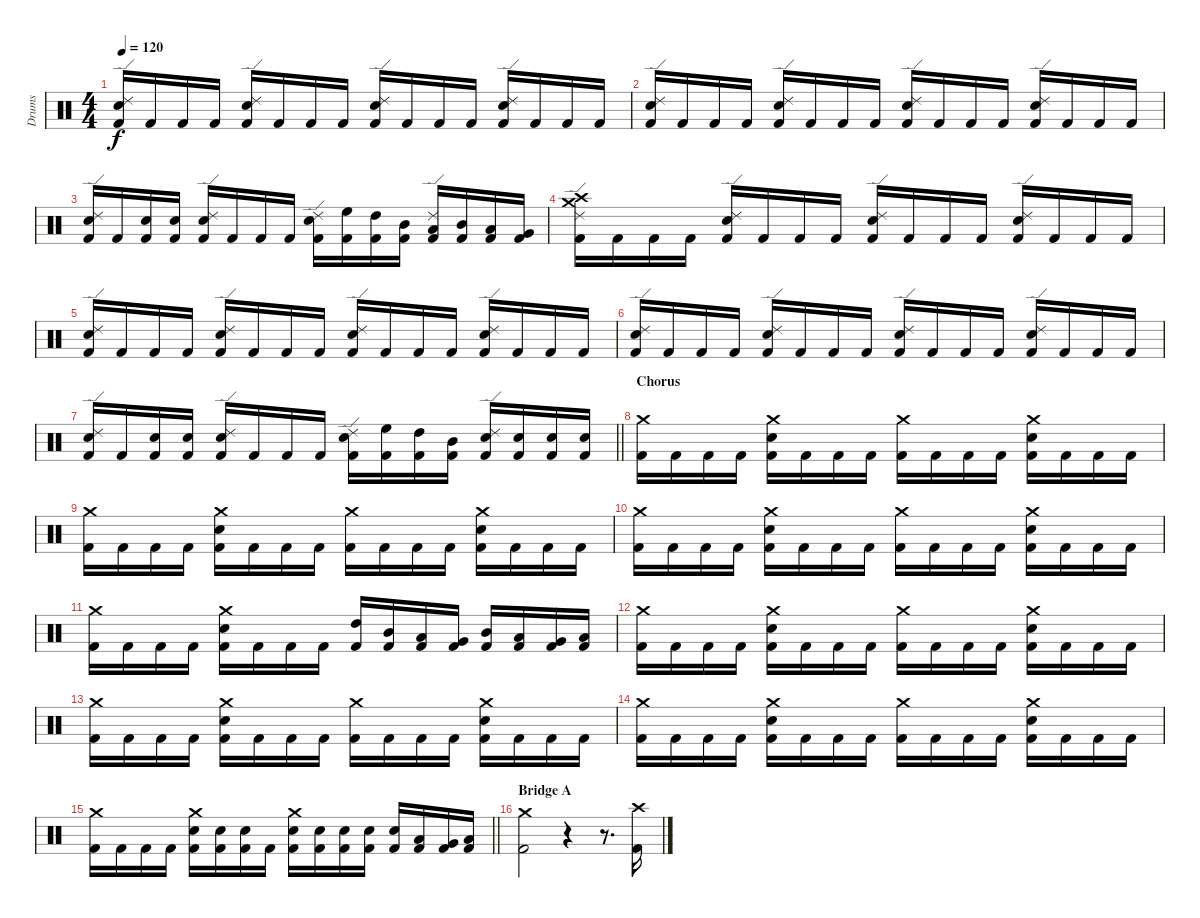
\track ("Drums" "Drums") {instrument percussion}
\staff {score}
\articulation defaults
\ts (4 4)
\tempo 120
\clef neutral
\ks c
("Kick (hit) 2" "Snare (hit) 2" "Ride (edge) 2").16{dy f} "Kick (hit) 2".16 "Kick (hit) 2".16 "Kick (hit) 2".16 ("Kick (hit) 2" "Snare (hit) 2" "Ride (edge) 2").16 "Kick (hit) 2".16 "Kick (hit) 2".16 "Kick (hit) 2".16 ("Kick (hit) 2" "Snare (hit) 2" "Ride (edge) 2").16 "Kick (hit) 2".16 "Kick (hit) 2".16 "Kick (hit) 2".16 ("Kick (hit) 2" "Snare (hit) 2" "Ride (edge) 2").16 "Kick (hit) 2".16 "Kick (hit) 2".16 "Kick (hit) 2".16 |
("Kick (hit) 2" "Snare (hit) 2" "Ride (edge) 2").16 "Kick (hit) 2".16 "Kick (hit) 2".16 "Kick (hit) 2".16 ("Kick (hit) 2" "Snare (hit) 2" "Ride (edge) 2").16 "Kick (hit) 2".16 "Kick (hit) 2".16 "Kick (hit) 2".16 ("Kick (hit) 2" "Snare (hit) 2" "Ride (edge) 2").16 "Kick (hit) 2".16 "Kick (hit) 2".16 "Kick (hit) 2".16 ("Kick (hit) 2" "Snare (hit) 2" "Ride (edge) 2").16 "Kick (hit) 2".16 "Kick (hit) 2".16 "Kick (hit) 2".16 |
("Kick (hit) 2" "Snare (hit) 2" "Ride (edge) 2").16 "Kick (hit) 2".16 ("Kick (hit) 2" "Snare (hit) 2").16 ("Kick (hit) 2" "Snare (hit) 2").16 ("Kick (hit) 2" "Snare (hit) 2" "Ride (edge) 2").16 "Kick (hit) 2".16 "Kick (hit) 2".16 "Kick (hit) 2".16 ("Kick (hit) 2" "Snare (hit) 2" "Ride (edge) 2").16 ("Kick (hit) 2" "High Floor Tom (hit)").16 ("Kick (hit) 2" "High Tom (hit)").16 ("Kick (hit) 2" "Mid Tom (hit)").16 ("Kick (hit) 2" "Ride (edge) 2" "Low Tom (hit)").16 ("Kick (hit) 2" "Mid Tom (hit)").16 ("Kick (hit) 2" "Low Tom (hit)").16 ("Kick (hit) 2" "Very Low Tom (hit)").16 |
("Kick (hit) 2" "Ride (edge) 2" "Crash high (hit)" "Crash medium (hit)").16 "Kick (hit) 2".16 "Kick (hit) 2".16 "Kick (hit) 2".16 ("Kick (hit) 2" "Snare (hit) 2" "Ride (edge) 2").16 "Kick (hit) 2".16 "Kick (hit) 2".16 "Kick (hit) 2".16 ("Kick (hit) 2" "Snare (hit) 2" "Ride (edge) 2").16 "Kick (hit) 2".16 "Kick (hit) 2".16 "Kick (hit) 2".16 ("Kick (hit) 2" "Snare (hit) 2" "Ride (edge) 2").16 "Kick (hit) 2".16 "Kick (hit) 2".16 "Kick (hit) 2".16 |
("Kick (hit) 2" "Snare (hit) 2" "Ride (edge) 2").16 "Kick (hit) 2".16 "Kick (hit) 2".16 "Kick (hit) 2".16 ("Kick (hit) 2" "Snare (hit) 2" "Ride (edge) 2").16 "Kick (hit) 2".16 "Kick (hit) 2".16 "Kick (hit) 2".16 ("Kick (hit) 2" "Snare (hit) 2" "Ride (edge) 2").16 "Kick (hit) 2".16 "Kick (hit) 2".16 "Kick (hit) 2".16 ("Kick (hit) 2" "Snare (hit) 2" "Ride (edge) 2").16 "Kick (hit) 2".16 "Kick (hit) 2".16 "Kick (hit) 2".16 |
("Kick (hit) 2" "Snare (hit) 2" "Ride (edge) 2").16 "Kick (hit) 2".16 "Kick (hit) 2".16 "Kick (hit) 2".16 ("Kick (hit) 2" "Snare (hit) 2" "Ride (edge) 2").16 "Kick (hit) 2".16 "Kick (hit) 2".16 "Kick (hit) 2".16 ("Kick (hit) 2" "Snare (hit) 2" "Ride (edge) 2").16 "Kick (hit) 2".16 "Kick (hit) 2".16 "Kick (hit) 2".16 ("Kick (hit) 2" "Snare (hit) 2" "Ride (edge) 2").16 "Kick (hit) 2".16 "Kick (hit) 2".16 "Kick (hit) 2".16 |
\barLineRight lightlight
("Kick (hit) 2" "Snare (hit) 2" "Ride (edge) 2").16 "Kick (hit) 2".16 ("Kick (hit) 2" "Snare (hit) 2").16 ("Kick (hit) 2" "Snare (hit) 2").16 ("Kick (hit) 2" "Snare (hit) 2" "Ride (edge) 2").16 "Kick (hit) 2".16 "Kick (hit) 2".16 "Kick (hit) 2".16 ("Kick (hit) 2" "Snare (hit) 2" "Ride (edge) 2").16 ("Kick (hit) 2" "High Floor Tom (hit)").16 ("Kick (hit) 2" "High Tom (hit)").16 ("Kick (hit) 2" "Mid Tom (hit)").16 ("Kick (hit) 2" "Snare (hit) 2" "Ride (edge) 2").16 ("Kick (hit) 2" "Snare (hit) 2").16 ("Kick (hit) 2" "Snare (hit) 2").16 ("Kick (hit) 2" "Snare (hit) 2").16 |
\section ("" "Chorus")
("Kick (hit) 2" "Crash medium (hit)").16 "Kick (hit) 2".16 "Kick (hit) 2".16 "Kick (hit) 2".16 ("Kick (hit) 2" "Snare (hit) 2" "Crash medium (hit)").16 "Kick (hit) 2".16 "Kick (hit) 2".16 "Kick (hit) 2".16 ("Kick (hit) 2" "Crash medium (hit)").16 "Kick (hit) 2".16 "Kick (hit) 2".16 "Kick (hit) 2".16 ("Kick (hit) 2" "Snare (hit) 2" "Crash medium (hit)").16 "Kick (hit) 2".16 "Kick (hit) 2".16 "Kick (hit) 2".16 |
("Kick (hit) 2" "Crash medium (hit)").16 "Kick (hit) 2".16 "Kick (hit) 2".16 "Kick (hit) 2".16 ("Kick (hit) 2" "Snare (hit) 2" "Crash medium (hit)").16 "Kick (hit) 2".16 "Kick (hit) 2".16 "Kick (hit) 2".16 ("Kick (hit) 2" "Crash medium (hit)").16 "Kick (hit) 2".16 "Kick (hit) 2".16 "Kick (hit) 2".16 ("Kick (hit) 2" "Snare (hit) 2" "Crash medium (hit)").16 "Kick (hit) 2".16 "Kick (hit) 2".16 "Kick (hit) 2".16 |
("Kick (hit) 2" "Crash medium (hit)").16 "Kick (hit) 2".16 "Kick (hit) 2".16 "Kick (hit) 2".16 ("Kick (hit) 2" "Snare (hit) 2" "Crash medium (hit)").16 "Kick (hit) 2".16 "Kick (hit) 2".16 "Kick (hit) 2".16 ("Kick (hit) 2" "Crash medium (hit)").16 "Kick (hit) 2".16 "Kick (hit) 2".16 "Kick (hit) 2".16 ("Kick (hit) 2" "Snare (hit) 2" "Crash medium (hit)").16 "Kick (hit) 2".16 "Kick (hit) 2".16 "Kick (hit) 2".16 |
("Kick (hit) 2" "Crash medium (hit)").16 "Kick (hit) 2".16 "Kick (hit) 2".16 "Kick (hit) 2".16 ("Kick (hit) 2" "Snare (hit) 2" "Crash medium (hit)").16 "Kick (hit) 2".16 "Kick (hit) 2".16 "Kick (hit) 2".16 ("Kick (hit) 2" "High Tom (hit)").16 ("Kick (hit) 2" "Mid Tom (hit)").16 ("Kick (hit) 2" "Low Tom (hit)").16 ("Kick (hit) 2" "Very Low Tom (hit)").16 ("Kick (hit) 2" "Mid Tom (hit)").16 ("Kick (hit) 2" "Low Tom (hit)").16 ("Kick (hit) 2" "Very Low Tom (hit)").16 ("Kick (hit) 2" "Low Floor Tom (hit)").16 |
("Kick (hit) 2" "Crash medium (hit)").16 "Kick (hit) 2".16 "Kick (hit) 2".16 "Kick (hit) 2".16 ("Kick (hit) 2" "Snare (hit) 2" "Crash medium (hit)").16 "Kick (hit) 2".16 "Kick (hit) 2".16 "Kick (hit) 2".16 ("Kick (hit) 2" "Crash medium (hit)").16 "Kick (hit) 2".16 "Kick (hit) 2".16 "Kick (hit) 2".16 ("Kick (hit) 2" "Snare (hit) 2" "Crash medium (hit)").16 "Kick (hit) 2".16 "Kick (hit) 2".16 "Kick (hit) 2".16 |
("Kick (hit) 2" "Crash medium (hit)").16 "Kick (hit) 2".16 "Kick (hit) 2".16 "Kick (hit) 2".16 ("Kick (hit) 2" "Snare (hit) 2" "Crash medium (hit)").16 "Kick (hit) 2".16 "Kick (hit) 2".16 "Kick (hit) 2".16 ("Kick (hit) 2" "Crash medium (hit)").16 "Kick (hit) 2".16 "Kick (hit) 2".16 "Kick (hit) 2".16 ("Kick (hit) 2" "Snare (hit) 2" "Crash medium (hit)").16 "Kick (hit) 2".16 "Kick (hit) 2".16 "Kick (hit) 2".16 |
("Kick (hit) 2" "Crash medium (hit)").16 "Kick (hit) 2".16 "Kick (hit) 2".16 "Kick (hit) 2".16 ("Kick (hit) 2" "Snare (hit) 2" "Crash medium (hit)").16 "Kick (hit) 2".16 "Kick (hit) 2".16 "Kick (hit) 2".16 ("Kick (hit) 2" "Crash medium (hit)").16 "Kick (hit) 2".16 "Kick (hit) 2".16 "Kick (hit) 2".16 ("Kick (hit) 2" "Snare (hit) 2" "Crash medium (hit)").16 "Kick (hit) 2".16 "Kick (hit) 2".16 "Kick (hit) 2".16 |
\barLineRight lightlight
("Kick (hit) 2" "Crash medium (hit)").16 "Kick (hit) 2".16 "Kick (hit) 2".16 "Kick (hit) 2".16 ("Kick (hit) 2" "Snare (hit) 2" "Crash medium (hit)").16 ("Kick (hit) 2" "Snare (hit) 2").16 ("Kick (hit) 2" "Snare (hit) 2").16 "Kick (hit) 2".16 ("Kick (hit) 2" "Snare (hit) 2" "Crash medium (hit)").16 ("Kick (hit) 2" "Snare (hit) 2").16 ("Kick (hit) 2" "Snare (hit) 2").16 ("Kick (hit) 2" "Snare (hit) 2").16 ("Kick (hit) 2" "Snare (hit) 2").16 ("Kick (hit) 2" "Low Tom (hit)").16 ("Kick (hit) 2" "Very Low Tom (hit)").16 ("Kick (hit) 2" "Low Floor Tom (hit)").16 |
\section ("" "Bridge A")
("Crash medium (hit)" "Kick (hit) 2").2 r.4 r.8{d} ("Crash high (hit)" "Kick (hit) 2").16
